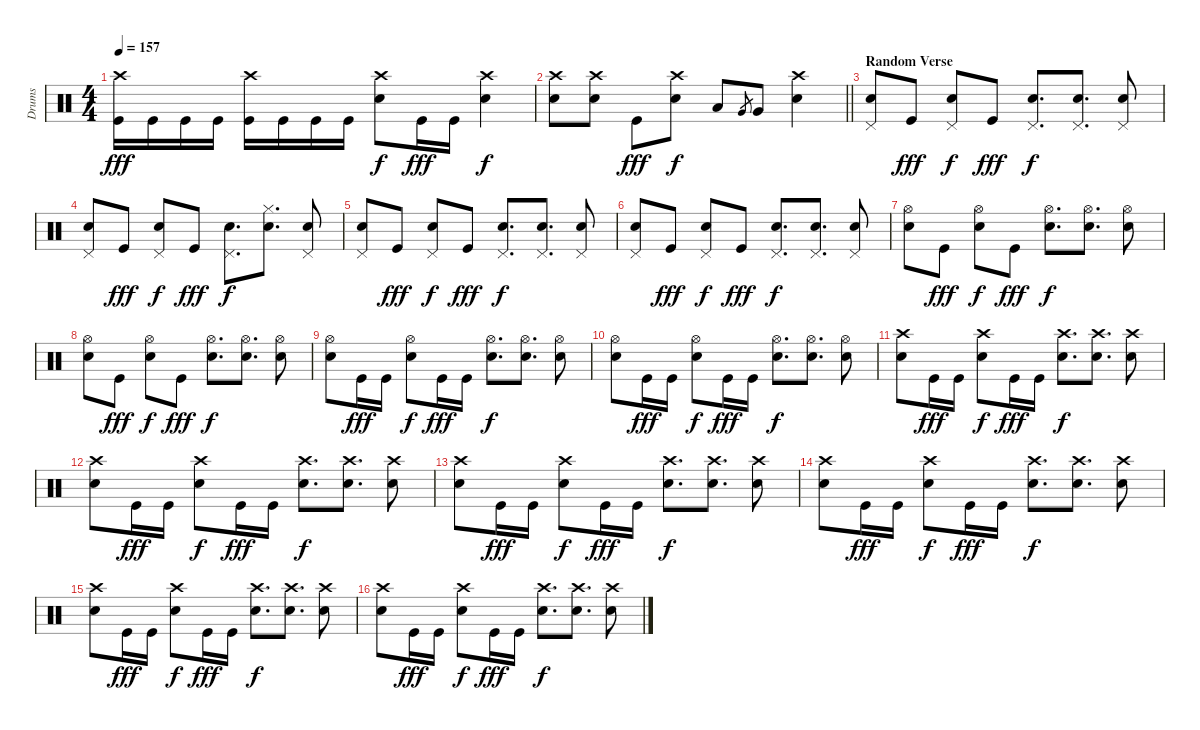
\track ("Drums" "Drums") {instrument percussion}
\staff {score}
\articulation defaults
\ts (4 4)
\tempo 157
\clef neutral
\ks c
("Crash high (hit)" "Kick (hit)").16{dy fff} "Kick (hit)".16 "Kick (hit)".16 "Kick (hit)".16 ("Crash high (hit)" "Kick (hit)").16 "Kick (hit)".16 "Kick (hit)".16 "Kick (hit)".16 ("Crash high (hit)" "Snare (hit) 2").8{dy f} "Kick (hit)".16{dy fff} "Kick (hit)".16 ("Crash high (hit)" "Snare (hit) 2").4{dy f} |
\barLineRight lightlight
("Crash high (hit)" "Snare (hit) 2").8 ("Crash high (hit)" "Snare (hit) 2").8 "Kick (hit)".8{dy fff} ("Crash high (hit)" "Snare (hit) 2").8{dy f} "Low Tom (hit)".8 "Very Low Tom (hit)".8{gr} "Very Low Tom (hit)".8 ("Crash high (hit)" "Snare (hit) 2").4 |
\section ("" "Random Verse")
("Pedal Hi-Hat (hit)" "Snare (hit) 2").8 "Kick (hit)".8{dy fff} ("Pedal Hi-Hat (hit)" "Snare (hit) 2").8{dy f} "Kick (hit)".8{dy fff} ("Pedal Hi-Hat (hit)" "Snare (hit) 2").8{d dy f} ("Pedal Hi-Hat (hit)" "Snare (hit) 2").8{d} ("Pedal Hi-Hat (hit)" "Snare (hit) 2").8 |
("Pedal Hi-Hat (hit)" "Snare (hit) 2").8 "Kick (hit)".8{dy fff} ("Pedal Hi-Hat (hit)" "Snare (hit) 2").8{dy f} "Kick (hit)".8{dy fff} ("Pedal Hi-Hat (hit)" "Snare (hit) 2").8{d dy f} ("Hi-Hat (closed)" "Snare (hit) 2").8{d} ("Pedal Hi-Hat (hit)" "Snare (hit) 2").8 |
("Pedal Hi-Hat (hit)" "Snare (hit) 2").8 "Kick (hit)".8{dy fff} ("Pedal Hi-Hat (hit)" "Snare (hit) 2").8{dy f} "Kick (hit)".8{dy fff} ("Pedal Hi-Hat (hit)" "Snare (hit) 2").8{d dy f} ("Pedal Hi-Hat (hit)" "Snare (hit) 2").8{d} ("Pedal Hi-Hat (hit)" "Snare (hit) 2").8 |
("Pedal Hi-Hat (hit)" "Snare (hit) 2").8 "Kick (hit)".8{dy fff} ("Pedal Hi-Hat (hit)" "Snare (hit) 2").8{dy f} "Kick (hit)".8{dy fff} ("Pedal Hi-Hat (hit)" "Snare (hit) 2").8{d dy f} ("Pedal Hi-Hat (hit)" "Snare (hit) 2").8{d} ("Pedal Hi-Hat (hit)" "Snare (hit) 2").8 |
("Hi-Hat (open)" "Snare (hit) 2").8 "Kick (hit)".8{dy fff} ("Hi-Hat (open)" "Snare (hit) 2").8{dy f} "Kick (hit)".8{dy fff} ("Hi-Hat (open)" "Snare (hit) 2").8{d dy f} ("Hi-Hat (open)" "Snare (hit) 2").8{d} ("Hi-Hat (open)" "Snare (hit) 2").8 |
("Hi-Hat (open)" "Snare (hit) 2").8 "Kick (hit)".8{dy fff} ("Hi-Hat (open)" "Snare (hit) 2").8{dy f} "Kick (hit)".8{dy fff} ("Hi-Hat (open)" "Snare (hit) 2").8{d dy f} ("Hi-Hat (open)" "Snare (hit) 2").8{d} ("Hi-Hat (open)" "Snare (hit) 2").8 |
("Hi-Hat (open)" "Snare (hit) 2").8 "Kick (hit)".16{dy fff} "Kick (hit)".16 ("Hi-Hat (open)" "Snare (hit) 2").8{dy f} "Kick (hit)".16{dy fff} "Kick (hit)".16 ("Hi-Hat (open)" "Snare (hit) 2").8{d dy f} ("Hi-Hat (open)" "Snare (hit) 2").8{d} ("Hi-Hat (open)" "Snare (hit) 2").8 |
("Hi-Hat (open)" "Snare (hit) 2").8 "Kick (hit)".16{dy fff} "Kick (hit)".16 ("Hi-Hat (open)" "Snare (hit) 2").8{dy f} "Kick (hit)".16{dy fff} "Kick (hit)".16 ("Hi-Hat (open)" "Snare (hit) 2").8{d dy f} ("Hi-Hat (open)" "Snare (hit) 2").8{d} ("Hi-Hat (open)" "Snare (hit) 2").8 |
("Crash high (hit)" "Snare (hit) 2").8 "Kick (hit)".16{dy fff} "Kick (hit)".16 ("Crash high (hit)" "Snare (hit) 2").8{dy f} "Kick (hit)".16{dy fff} "Kick (hit)".16 ("Crash high (hit)" "Snare (hit) 2").8{d dy f} ("Crash high (hit)" "Snare (hit) 2").8{d} ("Crash high (hit)" "Snare (hit) 2").8 |
("Crash high (hit)" "Snare (hit) 2").8 "Kick (hit)".16{dy fff} "Kick (hit)".16 ("Crash high (hit)" "Snare (hit) 2").8{dy f} "Kick (hit)".16{dy fff} "Kick (hit)".16 ("Crash high (hit)" "Snare (hit) 2").8{d dy f} ("Crash high (hit)" "Snare (hit) 2").8{d} ("Crash high (hit)" "Snare (hit) 2").8 |
("Crash high (hit)" "Snare (hit) 2").8 "Kick (hit)".16{dy fff} "Kick (hit)".16 ("Crash high (hit)" "Snare (hit) 2").8{dy f} "Kick (hit)".16{dy fff} "Kick (hit)".16 ("Crash high (hit)" "Snare (hit) 2").8{d dy f} ("Crash high (hit)" "Snare (hit) 2").8{d} ("Crash high (hit)" "Snare (hit) 2").8 |
("Crash high (hit)" "Snare (hit) 2").8 "Kick (hit)".16{dy fff} "Kick (hit)".16 ("Crash high (hit)" "Snare (hit) 2").8{dy f} "Kick (hit)".16{dy fff} "Kick (hit)".16 ("Crash high (hit)" "Snare (hit) 2").8{d dy f} ("Crash high (hit)" "Snare (hit) 2").8{d} ("Crash high (hit)" "Snare (hit) 2").8 |
("Crash high (hit)" "Snare (hit) 2").8 "Kick (hit)".16{dy fff} "Kick (hit)".16 ("Crash high (hit)" "Snare (hit) 2").8{dy f} "Kick (hit)".16{dy fff} "Kick (hit)".16 ("Crash high (hit)" "Snare (hit) 2").8{d dy f} ("Crash high (hit)" "Snare (hit) 2").8{d} ("Crash high (hit)" "Snare (hit) 2").8 |
("Crash high (hit)" "Snare (hit) 2").8 "Kick (hit)".16{dy fff} "Kick (hit)".16 ("Crash high (hit)" "Snare (hit) 2").8{dy f} "Kick (hit)".16{dy fff} "Kick (hit)".16 ("Crash high (hit)" "Snare (hit) 2").8{d dy f} ("Crash high (hit)" "Snare (hit) 2").8{d} ("Crash high (hit)" "Snare (hit) 2").8
